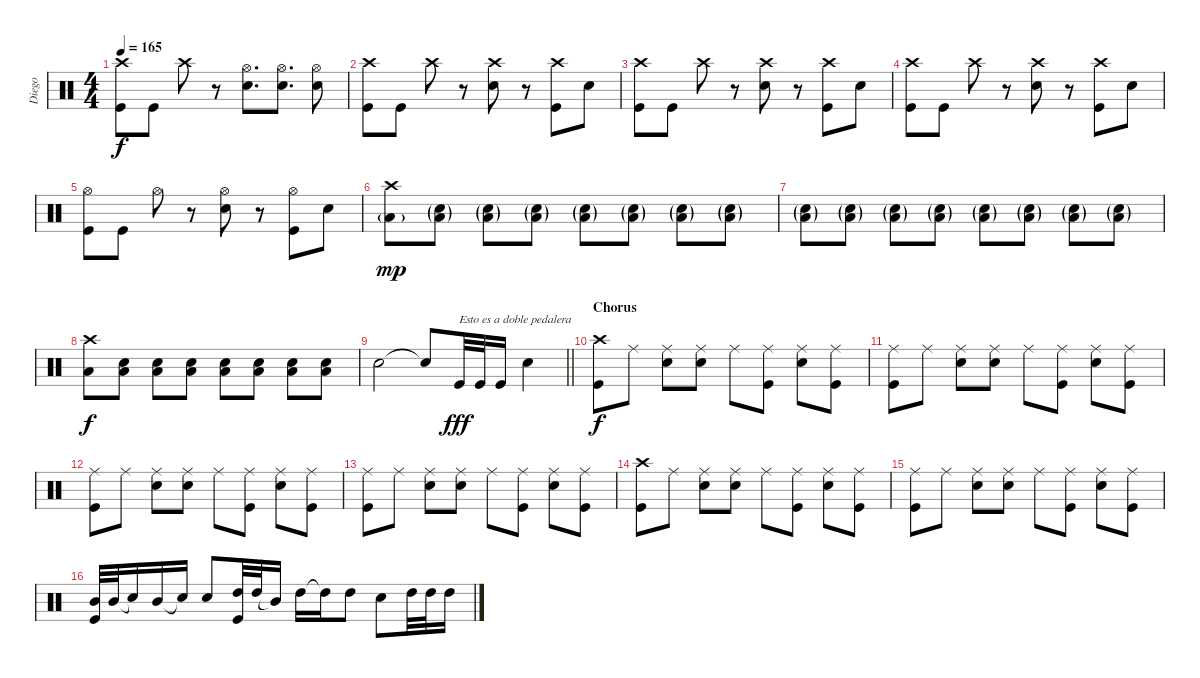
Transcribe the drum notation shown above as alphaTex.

\track ("Diego" "Diego") {instrument percussion}
\staff {score}
\articulation defaults
\ts (4 4)
\tempo 165
\clef neutral
\ks c
("Crash high (hit)" "Kick (hit)").8{dy f} "Kick (hit)".8 "Crash high (hit)".8 r.8 ("Hi-Hat (open)" "Snare (hit) 2").8{d} ("Hi-Hat (open)" "Snare (hit) 2").8{d} ("Hi-Hat (open)" "Snare (hit) 2").8 |
("Crash high (hit)" "Kick (hit)").8 "Kick (hit)".8 "Crash high (hit)".8 r.8 ("Crash high (hit)" "Snare (hit) 2").8 r.8 ("Crash high (hit)" "Kick (hit)").8 "Snare (hit) 2".8 |
("Crash high (hit)" "Kick (hit)").8 "Kick (hit)".8 "Crash high (hit)".8 r.8 ("Crash high (hit)" "Snare (hit) 2").8 r.8 ("Crash high (hit)" "Kick (hit)").8 "Snare (hit) 2".8 |
("Crash high (hit)" "Kick (hit)").8 "Kick (hit)".8 "Crash high (hit)".8 r.8 ("Crash high (hit)" "Snare (hit) 2").8 r.8 ("Crash high (hit)" "Kick (hit)").8 "Snare (hit) 2".8 |
("Hi-Hat (open)" "Kick (hit)").8 "Kick (hit)".8 "Hi-Hat (open)".8 r.8 ("Hi-Hat (open)" "Snare (hit) 2").8 r.8 ("Hi-Hat (open)" "Kick (hit)").8 "Snare (hit) 2".8 |
("Crash high (hit)" "Low Floor Tom (hit)"{g}).8{dy mp} ("Snare (hit) 2"{g} "Low Floor Tom (hit)"{g}).8 ("Snare (hit) 2"{g} "Low Floor Tom (hit)"{g}).8 ("Snare (hit) 2"{g} "Low Floor Tom (hit)"{g}).8 ("Snare (hit) 2"{g} "Low Floor Tom (hit)"{g}).8 ("Snare (hit) 2"{g} "Low Floor Tom (hit)"{g}).8 ("Snare (hit) 2"{g} "Low Floor Tom (hit)"{g}).8 ("Snare (hit) 2"{g} "Low Floor Tom (hit)"{g}).8 |
("Snare (hit) 2"{g} "Low Floor Tom (hit)"{g}).8 ("Snare (hit) 2"{g} "Low Floor Tom (hit)"{g}).8 ("Snare (hit) 2"{g} "Low Floor Tom (hit)"{g}).8 ("Snare (hit) 2"{g} "Low Floor Tom (hit)"{g}).8 ("Snare (hit) 2"{g} "Low Floor Tom (hit)"{g}).8 ("Snare (hit) 2"{g} "Low Floor Tom (hit)"{g}).8 ("Snare (hit) 2"{g} "Low Floor Tom (hit)"{g}).8 ("Snare (hit) 2"{g} "Low Floor Tom (hit)"{g}).8 |
("Crash high (hit)" "Low Floor Tom (hit)").8{dy f} ("Snare (hit) 2" "Low Floor Tom (hit)").8 ("Snare (hit) 2" "Low Floor Tom (hit)").8 ("Snare (hit) 2" "Low Floor Tom (hit)").8 ("Snare (hit) 2" "Low Floor Tom (hit)").8 ("Snare (hit) 2" "Low Floor Tom (hit)").8 ("Snare (hit) 2" "Low Floor Tom (hit)").8 ("Snare (hit) 2" "Low Floor Tom (hit)").8 |
\barLineRight lightlight "Snare (hit) 2".2 "Snare (hit)"{t}.8 "Kick (hit)".32{txt "Esto es a doble pedalera" dy fff} "Kick (hit)".32 "Kick (hit)".16 "Snare (hit) 2".4
|
\section ("" "Chorus")
("Crash high (hit)" "Kick (hit)").8{dy f} "Ride (middle)".8 ("Ride (middle)" "Snare (hit) 2").8 ("Ride (middle)" "Snare (hit) 2").8 "Ride (middle)".8 ("Ride (middle)" "Kick (hit)").8 ("Ride (middle)" "Snare (hit) 2").8 ("Ride (middle)" "Kick (hit)").8 |
("Ride (middle)" "Kick (hit)").8 "Ride (middle)".8 ("Ride (middle)" "Snare (hit) 2").8 ("Ride (middle)" "Snare (hit) 2").8 "Ride (middle)".8 ("Ride (middle)" "Kick (hit)").8 ("Ride (middle)" "Snare (hit) 2").8 ("Ride (middle)" "Kick (hit)").8 |
("Ride (middle)" "Kick (hit)").8 "Ride (middle)".8 ("Ride (middle)" "Snare (hit) 2").8 ("Ride (middle)" "Snare (hit) 2").8 "Ride (middle)".8 ("Ride (middle)" "Kick (hit)").8 ("Ride (middle)" "Snare (hit) 2").8 ("Ride (middle)" "Kick (hit)").8 |
("Ride (middle)" "Kick (hit)").8 "Ride (middle)".8 ("Ride (middle)" "Snare (hit) 2").8 ("Ride (middle)" "Snare (hit) 2").8 "Ride (middle)".8 ("Ride (middle)" "Kick (hit)").8 ("Ride (middle)" "Snare (hit) 2").8 ("Ride (middle)" "Kick (hit)").8 |
("Crash high (hit)" "Kick (hit)").8 "Ride (middle)".8 ("Ride (middle)" "Snare (hit) 2").8 ("Ride (middle)" "Snare (hit) 2").8 "Ride (middle)".8 ("Ride (middle)" "Kick (hit)").8 ("Ride (middle)" "Snare (hit) 2").8 ("Ride (middle)" "Kick (hit)").8 |
("Ride (middle)" "Kick (hit)").8 "Ride (middle)".8 ("Ride (middle)" "Snare (hit) 2").8 ("Ride (middle)" "Snare (hit) 2").8 "Ride (middle)".8 ("Ride (middle)" "Kick (hit)").8 ("Ride (middle)" "Snare (hit) 2").8 ("Ride (middle)" "Kick (hit)").8 |
("Mid Tom (hit)" "Kick (hit)").32 "Mid Tom (hit)".32 "Snare (hit)"{t}.16 "Mid Tom (hit)".16 "Snare (hit) 2"{t}.16 "Snare (hit) 2".8 ("High Tom (hit)" "Kick (hit)").32 "High Tom (hit)".32 "Mid Tom (hit)"{t}.16 "High Tom (hit)".16 "High Tom (hit)"{t}.16 "High Tom (hit)".8 "Snare (hit) 2".8 "High Tom (hit)".32 "High Tom (hit)".32 "High Tom (hit)".16
